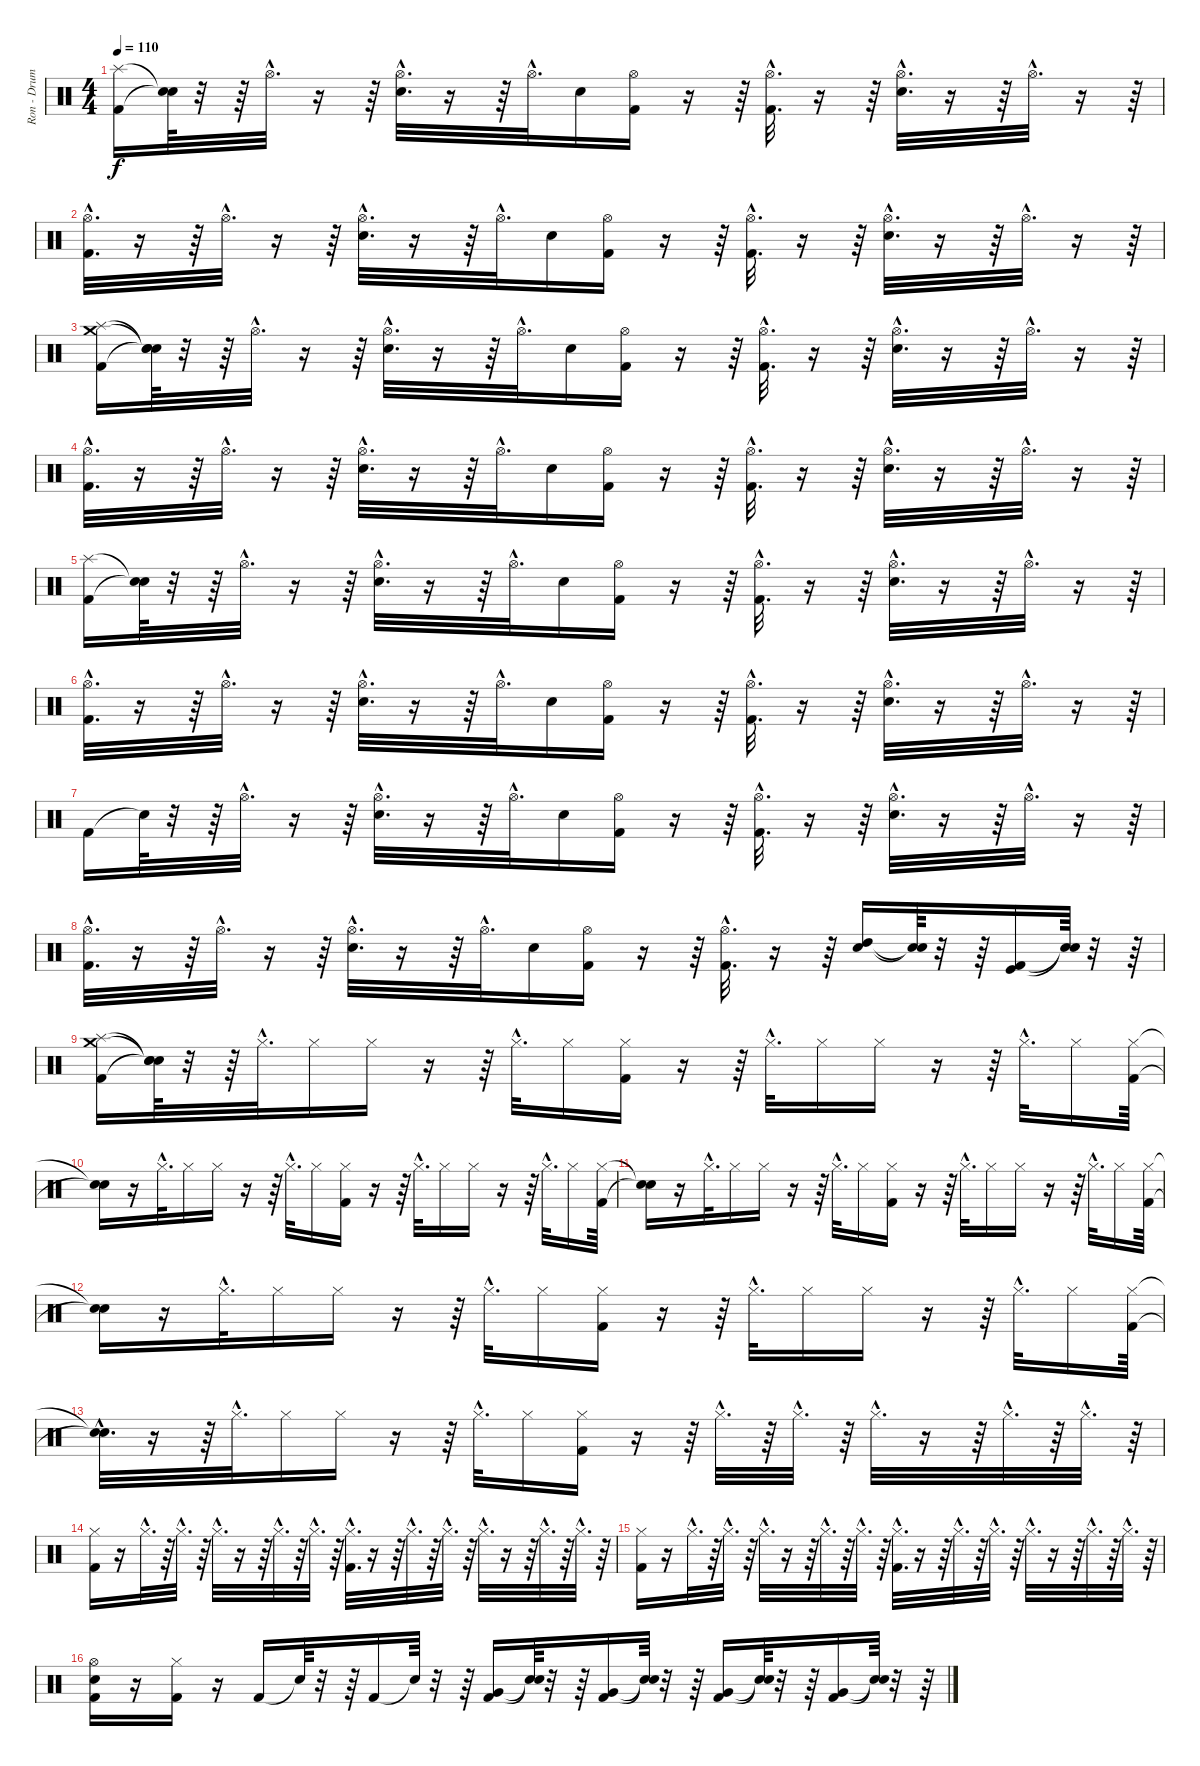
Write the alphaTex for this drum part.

\track ("Ron - Drums" "Ron - Drum") {instrument percussion}
\staff {score}
\articulation defaults
\ts (4 4)
\tempo 110
\clef neutral
\ks c
("Splash (hit)" "Kick (hit) 2").16{dy f} ("Snare (hit)"{t} "Snare (hit)"{t}).64 r.32 r.64 "Hi-Hat (open)"{hac}.32{d} r.16 r.64 ("Hi-Hat (open)"{hac} "Electric Snare (hit)"{hac}).32{d} r.16 r.64 "Hi-Hat (open)"{hac}.32{d} "Electric Snare (hit)".16 ("Hi-Hat (open)" "Kick (hit) 2").16 r.16 r.64 ("Hi-Hat (open)"{hac} "Kick (hit) 2"{hac}).32{d} r.16 r.64 ("Hi-Hat (open)"{hac} "Electric Snare (hit)"{hac}).32{d} r.16 r.64 "Hi-Hat (open)"{hac}.32{d} r.16 r.64 |
("Hi-Hat (open)"{hac} "Kick (hit) 2"{hac}).32{d} r.16 r.64 "Hi-Hat (open)"{hac}.32{d} r.16 r.64 ("Hi-Hat (open)"{hac} "Electric Snare (hit)"{hac}).32{d} r.16 r.64 "Hi-Hat (open)"{hac}.32{d} "Electric Snare (hit)".16 ("Hi-Hat (open)" "Kick (hit) 2").16 r.16 r.64 ("Hi-Hat (open)"{hac} "Kick (hit) 2"{hac}).32{d} r.16 r.64 ("Hi-Hat (open)"{hac} "Electric Snare (hit)"{hac}).32{d} r.16 r.64 "Hi-Hat (open)"{hac}.32{d} r.16 r.64 |
("Crash medium (hit)" "Splash (hit)" "Kick (hit) 2").16 ("Snare (hit)"{t} "Snare (hit)"{t} "Snare (hit)"{t}).64 r.32 r.64 "Hi-Hat (open)"{hac}.32{d} r.16 r.64 ("Hi-Hat (open)"{hac} "Electric Snare (hit)"{hac}).32{d} r.16 r.64 "Hi-Hat (open)"{hac}.32{d} "Electric Snare (hit)".16 ("Hi-Hat (open)" "Kick (hit) 2").16 r.16 r.64 ("Hi-Hat (open)"{hac} "Kick (hit) 2"{hac}).32{d} r.16 r.64 ("Hi-Hat (open)"{hac} "Electric Snare (hit)"{hac}).32{d} r.16 r.64 "Hi-Hat (open)"{hac}.32{d} r.16 r.64 |
("Hi-Hat (open)"{hac} "Kick (hit) 2"{hac}).32{d} r.16 r.64 "Hi-Hat (open)"{hac}.32{d} r.16 r.64 ("Hi-Hat (open)"{hac} "Electric Snare (hit)"{hac}).32{d} r.16 r.64 "Hi-Hat (open)"{hac}.32{d} "Electric Snare (hit)".16 ("Hi-Hat (open)" "Kick (hit) 2").16 r.16 r.64 ("Hi-Hat (open)"{hac} "Kick (hit) 2"{hac}).32{d} r.16 r.64 ("Hi-Hat (open)"{hac} "Electric Snare (hit)"{hac}).32{d} r.16 r.64 "Hi-Hat (open)"{hac}.32{d} r.16 r.64 |
("Splash (hit)" "Kick (hit) 2").16 ("Snare (hit)"{t} "Snare (hit)"{t}).64 r.32 r.64 "Hi-Hat (open)"{hac}.32{d} r.16 r.64 ("Hi-Hat (open)"{hac} "Electric Snare (hit)"{hac}).32{d} r.16 r.64 "Hi-Hat (open)"{hac}.32{d} "Electric Snare (hit)".16 ("Hi-Hat (open)" "Kick (hit) 2").16 r.16 r.64 ("Hi-Hat (open)"{hac} "Kick (hit) 2"{hac}).32{d} r.16 r.64 ("Hi-Hat (open)"{hac} "Electric Snare (hit)"{hac}).32{d} r.16 r.64 "Hi-Hat (open)"{hac}.32{d} r.16 r.64 |
("Hi-Hat (open)"{hac} "Kick (hit) 2"{hac}).32{d} r.16 r.64 "Hi-Hat (open)"{hac}.32{d} r.16 r.64 ("Hi-Hat (open)"{hac} "Electric Snare (hit)"{hac}).32{d} r.16 r.64 "Hi-Hat (open)"{hac}.32{d} "Electric Snare (hit)".16 ("Hi-Hat (open)" "Kick (hit) 2").16 r.16 r.64 ("Hi-Hat (open)"{hac} "Kick (hit) 2"{hac}).32{d} r.16 r.64 ("Hi-Hat (open)"{hac} "Electric Snare (hit)"{hac}).32{d} r.16 r.64 "Hi-Hat (open)"{hac}.32{d} r.16 r.64 |
"Kick (hit) 2".16 "Snare (hit)"{t}.64 r.32 r.64 "Hi-Hat (open)"{hac}.32{d} r.16 r.64 ("Hi-Hat (open)"{hac} "Electric Snare (hit)"{hac}).32{d} r.16 r.64 "Hi-Hat (open)"{hac}.32{d} "Electric Snare (hit)".16 ("Hi-Hat (open)" "Kick (hit) 2").16 r.16 r.64 ("Hi-Hat (open)"{hac} "Kick (hit) 2"{hac}).32{d} r.16 r.64 ("Hi-Hat (open)"{hac} "Electric Snare (hit)"{hac}).32{d} r.16 r.64 "Hi-Hat (open)"{hac}.32{d} r.16 r.64 |
("Hi-Hat (open)"{hac} "Kick (hit) 2"{hac}).32{d} r.16 r.64 "Hi-Hat (open)"{hac}.32{d} r.16 r.64 ("Hi-Hat (open)"{hac} "Electric Snare (hit)"{hac}).32{d} r.16 r.64 "Hi-Hat (open)"{hac}.32{d} "Electric Snare (hit)".16 ("Hi-Hat (open)" "Kick (hit) 2").16 r.16 r.64 ("Hi-Hat (open)"{hac} "Kick (hit) 2"{hac}).32{d} r.16 r.64 ("High Tom (hit)" "Electric Snare (hit)").16 ("Snare (hit)"{t} "Snare (hit)"{t}).64 r.32 r.64 ("Kick (hit) 2" "Kick (hit)").16 ("Snare (hit)"{t} "Snare (hit)"{t}).64 r.32 r.64 |
("Kick (hit) 2" "Crash medium (hit)" "Splash (hit)").16 ("Snare (hit)"{t} "Snare (hit)"{t} "Snare (hit)"{t}).64 r.32 r.64 "Hi-Hat (closed)"{hac}.32{d} "Hi-Hat (closed)".16 "Hi-Hat (closed)".16 r.16 r.64 "Hi-Hat (closed)"{hac}.32{d} "Hi-Hat (closed)".16 ("Hi-Hat (closed)" "Kick (hit) 2").16 r.16 r.64 "Hi-Hat (closed)"{hac}.32{d} "Hi-Hat (closed)".16 "Hi-Hat (closed)".16 r.16 r.64 "Hi-Hat (closed)"{hac}.32{d} "Hi-Hat (closed)".16 ("Kick (hit) 2" "Hi-Hat (closed)").64 |
("Snare (hit)"{t} "Snare (hit)"{t}).16 r.16 "Hi-Hat (closed)"{hac}.32{d} "Hi-Hat (closed)".16 "Hi-Hat (closed)".16 r.16 r.64 "Hi-Hat (closed)"{hac}.32{d} "Hi-Hat (closed)".16 ("Hi-Hat (closed)" "Kick (hit) 2").16 r.16 r.64 "Hi-Hat (closed)"{hac}.32{d} "Hi-Hat (closed)".16 "Hi-Hat (closed)".16 r.16 r.64 "Hi-Hat (closed)"{hac}.32{d} "Hi-Hat (closed)".16 ("Kick (hit) 2" "Hi-Hat (closed)").64 |
("Snare (hit)"{t} "Snare (hit)"{t}).16 r.16 "Hi-Hat (closed)"{hac}.32{d} "Hi-Hat (closed)".16 "Hi-Hat (closed)".16 r.16 r.64 "Hi-Hat (closed)"{hac}.32{d} "Hi-Hat (closed)".16 ("Hi-Hat (closed)" "Kick (hit) 2").16 r.16 r.64 "Hi-Hat (closed)"{hac}.32{d} "Hi-Hat (closed)".16 "Hi-Hat (closed)".16 r.16 r.64 "Hi-Hat (closed)"{hac}.32{d} "Hi-Hat (closed)".16 ("Kick (hit) 2" "Hi-Hat (closed)").64 |
("Snare (hit)"{t} "Snare (hit)"{t}).16 r.16 "Hi-Hat (closed)"{hac}.32{d} "Hi-Hat (closed)".16 "Hi-Hat (closed)".16 r.16 r.64 "Hi-Hat (closed)"{hac}.32{d} "Hi-Hat (closed)".16 ("Hi-Hat (closed)" "Kick (hit) 2").16 r.16 r.64 "Hi-Hat (closed)"{hac}.32{d} "Hi-Hat (closed)".16 "Hi-Hat (closed)".16 r.16 r.64 "Hi-Hat (closed)"{hac}.32{d} "Hi-Hat (closed)".16 ("Kick (hit) 2" "Hi-Hat (closed)").64 |
("Snare (hit)"{hac t} "Snare (hit)"{hac t}).32{d} r.16 r.64 "Hi-Hat (closed)"{hac}.32{d} "Hi-Hat (closed)".16 "Hi-Hat (closed)".16 r.16 r.64 "Hi-Hat (closed)"{hac}.32{d} "Hi-Hat (closed)".16 ("Hi-Hat (closed)" "Kick (hit) 2").16 r.16 r.64 "Hi-Hat (closed)"{hac}.32{d} r.64 "Hi-Hat (closed)"{hac}.32{d} r.64 "Hi-Hat (closed)"{hac}.32{d} r.16 r.64 "Hi-Hat (closed)"{hac}.32{d} r.64 "Hi-Hat (closed)"{hac}.32{d} r.64 |
("Kick (hit) 2" "Hi-Hat (closed)").16 r.16 "Hi-Hat (closed)"{hac}.32{d} r.64 "Hi-Hat (closed)"{hac}.32{d} r.64 "Hi-Hat (closed)"{hac}.32{d} r.16 r.64 "Hi-Hat (closed)"{hac}.32{d} r.64 "Hi-Hat (closed)"{hac}.32{d} r.64 ("Hi-Hat (closed)"{hac} "Kick (hit) 2"{hac}).32{d} r.16 r.64 "Hi-Hat (closed)"{hac}.32{d} r.64 "Hi-Hat (closed)"{hac}.32{d} r.64 "Hi-Hat (closed)"{hac}.32{d} r.16 r.64 "Hi-Hat (closed)"{hac}.32{d} r.64 "Hi-Hat (closed)"{hac}.32{d} r.64 |
("Kick (hit) 2" "Hi-Hat (closed)").16 r.16 "Hi-Hat (closed)"{hac}.32{d} r.64 "Hi-Hat (closed)"{hac}.32{d} r.64 "Hi-Hat (closed)"{hac}.32{d} r.16 r.64 "Hi-Hat (closed)"{hac}.32{d} r.64 "Hi-Hat (closed)"{hac}.32{d} r.64 ("Hi-Hat (closed)"{hac} "Kick (hit) 2"{hac}).32{d} r.16 r.64 "Hi-Hat (closed)"{hac}.32{d} r.64 "Hi-Hat (closed)"{hac}.32{d} r.64 "Hi-Hat (closed)"{hac}.32{d} r.16 r.64 "Hi-Hat (closed)"{hac}.32{d} r.64 "Hi-Hat (closed)"{hac}.32{d} r.64 |
("Hi-Hat (open)" "Kick (hit) 2" "Electric Snare (hit)").16 r.16 ("Hi-Hat (closed)" "Kick (hit) 2").16 r.16 "Kick (hit) 2".16 "Snare (hit)"{t}.64 r.32 r.64 "Kick (hit) 2".16 "Snare (hit)"{t}.64 r.32 r.64 ("Kick (hit) 2" "Very Low Tom (hit)").16 ("Snare (hit)"{t} "Snare (hit)"{t}).64 r.32 r.64 ("Kick (hit) 2" "Very Low Tom (hit)").16 ("Snare (hit)"{t} "Snare (hit)"{t}).64 r.32 r.64 ("Kick (hit) 2" "Very Low Tom (hit)").16 ("Snare (hit)"{t} "Snare (hit)"{t}).64 r.32 r.64 ("Kick (hit) 2" "Very Low Tom (hit)").16 ("Snare (hit)"{t} "Snare (hit)"{t}).64 r.32 r.64
